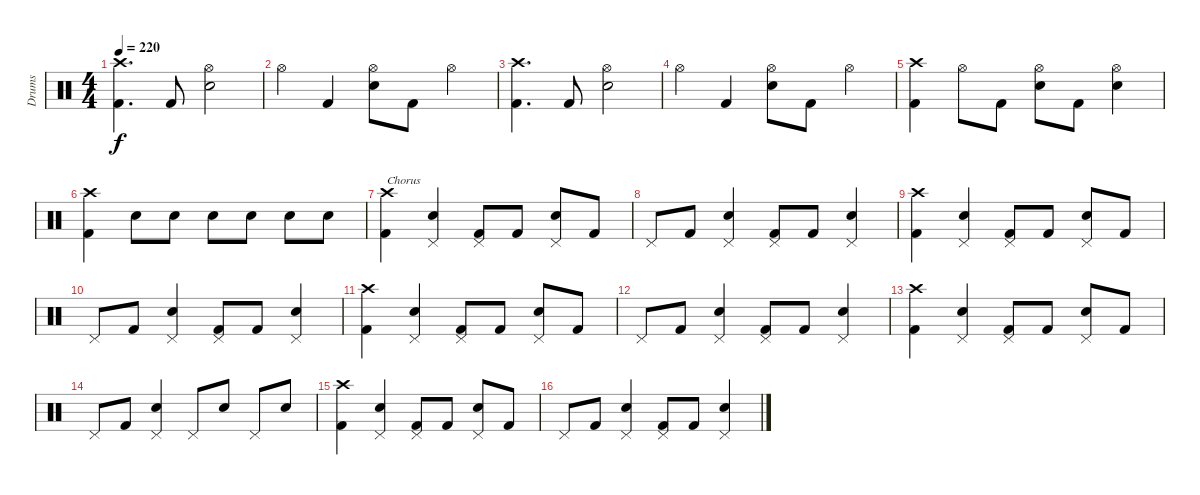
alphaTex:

\track ("Drums" "Drums") {instrument percussion}
\staff {score}
\articulation defaults
\ts (4 4)
\tempo 220
\clef neutral
\ks c
("Crash high (hit)" "Kick (hit) 2").4{d dy f} "Kick (hit) 2".8 ("Hi-Hat (open)" "Snare (hit) 2").2 |
"Hi-Hat (open)".4 "Kick (hit) 2".4 ("Hi-Hat (open)" "Snare (hit) 2").8 "Kick (hit) 2".8 "Hi-Hat (open)".4 |
("Crash high (hit)" "Kick (hit) 2").4{d} "Kick (hit) 2".8 ("Hi-Hat (open)" "Snare (hit) 2").2 |
"Hi-Hat (open)".4 "Kick (hit) 2".4 ("Hi-Hat (open)" "Snare (hit) 2").8 "Kick (hit) 2".8 "Hi-Hat (open)".4 |
("Crash high (hit)" "Kick (hit) 2").4 "Hi-Hat (open)".8 "Kick (hit) 2".8 ("Hi-Hat (open)" "Snare (hit) 2").8 "Kick (hit) 2".8 ("Hi-Hat (open)" "Snare (hit) 2").4 |
("Crash high (hit)" "Kick (hit) 2").4 "Snare (hit) 2".8 "Snare (hit) 2".8 "Snare (hit) 2".8 "Snare (hit) 2".8 "Snare (hit) 2".8 "Snare (hit) 2".8 |
("Crash high (hit)" "Kick (hit) 2").4{txt "Chorus"} ("Pedal Hi-Hat (hit)" "Snare (hit) 2").4 ("Pedal Hi-Hat (hit)" "Kick (hit) 2").8 "Kick (hit) 2".8 ("Pedal Hi-Hat (hit)" "Snare (hit) 2").8 "Kick (hit) 2".8 |
"Pedal Hi-Hat (hit)".8 "Kick (hit) 2".8 ("Pedal Hi-Hat (hit)" "Snare (hit) 2").4 ("Pedal Hi-Hat (hit)" "Kick (hit) 2").8 "Kick (hit) 2".8 ("Pedal Hi-Hat (hit)" "Snare (hit) 2").4 |
("Crash high (hit)" "Kick (hit) 2").4 ("Pedal Hi-Hat (hit)" "Snare (hit) 2").4 ("Pedal Hi-Hat (hit)" "Kick (hit) 2").8 "Kick (hit) 2".8 ("Pedal Hi-Hat (hit)" "Snare (hit) 2").8 "Kick (hit) 2".8 |
"Pedal Hi-Hat (hit)".8 "Kick (hit) 2".8 ("Pedal Hi-Hat (hit)" "Snare (hit) 2").4 ("Pedal Hi-Hat (hit)" "Kick (hit) 2").8 "Kick (hit) 2".8 ("Pedal Hi-Hat (hit)" "Snare (hit) 2").4 |
("Crash high (hit)" "Kick (hit) 2").4 ("Pedal Hi-Hat (hit)" "Snare (hit) 2").4 ("Pedal Hi-Hat (hit)" "Kick (hit) 2").8 "Kick (hit) 2".8 ("Pedal Hi-Hat (hit)" "Snare (hit) 2").8 "Kick (hit) 2".8 |
"Pedal Hi-Hat (hit)".8 "Kick (hit) 2".8 ("Pedal Hi-Hat (hit)" "Snare (hit) 2").4 ("Pedal Hi-Hat (hit)" "Kick (hit) 2").8 "Kick (hit) 2".8 ("Pedal Hi-Hat (hit)" "Snare (hit) 2").4 |
("Crash high (hit)" "Kick (hit) 2").4 ("Pedal Hi-Hat (hit)" "Snare (hit) 2").4 ("Pedal Hi-Hat (hit)" "Kick (hit) 2").8 "Kick (hit) 2".8 ("Pedal Hi-Hat (hit)" "Snare (hit) 2").8 "Kick (hit) 2".8 |
"Pedal Hi-Hat (hit)".8 "Kick (hit) 2".8 ("Pedal Hi-Hat (hit)" "Snare (hit) 2").4 "Pedal Hi-Hat (hit)".8 "Snare (hit) 2".8 "Pedal Hi-Hat (hit)".8 "Snare (hit) 2".8 |
("Crash high (hit)" "Kick (hit) 2").4 ("Pedal Hi-Hat (hit)" "Snare (hit) 2").4 ("Pedal Hi-Hat (hit)" "Kick (hit) 2").8 "Kick (hit) 2".8 ("Pedal Hi-Hat (hit)" "Snare (hit) 2").8 "Kick (hit) 2".8 |
"Pedal Hi-Hat (hit)".8 "Kick (hit) 2".8 ("Pedal Hi-Hat (hit)" "Snare (hit) 2").4 ("Pedal Hi-Hat (hit)" "Kick (hit) 2").8 "Kick (hit) 2".8 ("Pedal Hi-Hat (hit)" "Snare (hit) 2").4
